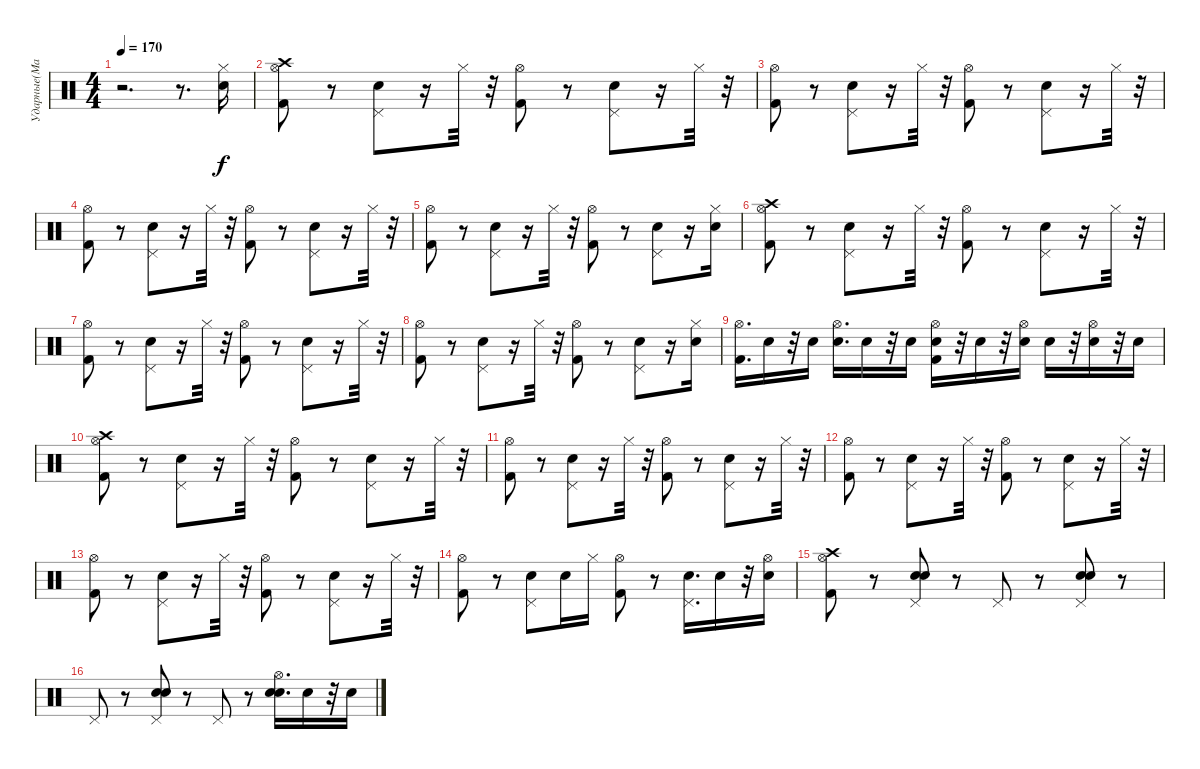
\track ("Ударные(Май)" "Ударные(Ма") {instrument percussion}
\staff {score}
\articulation defaults
\ts (4 4)
\tempo 170
\clef neutral
\ks c
r.2{d dy f} r.8{d} ("Electric Snare (hit)" "Hi-Hat (closed)").16 |
("Crash high (hit)" "Hi-Hat (open)" "Kick (hit) 2").8 r.8 ("Electric Snare (hit)" "Pedal Hi-Hat (hit)").8 r.16 "Hi-Hat (closed)".32 r.32 ("Kick (hit) 2" "Hi-Hat (open)").8 r.8 ("Electric Snare (hit)" "Pedal Hi-Hat (hit)").8 r.16 "Hi-Hat (closed)".32 r.32 |
("Hi-Hat (open)" "Kick (hit) 2").8 r.8 ("Electric Snare (hit)" "Pedal Hi-Hat (hit)").8 r.16 "Hi-Hat (closed)".32 r.32 ("Kick (hit) 2" "Hi-Hat (open)").8 r.8 ("Electric Snare (hit)" "Pedal Hi-Hat (hit)").8 r.16 "Hi-Hat (closed)".32 r.32 |
("Hi-Hat (open)" "Kick (hit) 2").8 r.8 ("Electric Snare (hit)" "Pedal Hi-Hat (hit)").8 r.16 "Hi-Hat (closed)".32 r.32 ("Kick (hit) 2" "Hi-Hat (open)").8 r.8 ("Electric Snare (hit)" "Pedal Hi-Hat (hit)").8 r.16 "Hi-Hat (closed)".32 r.32 |
("Hi-Hat (open)" "Kick (hit) 2").8 r.8 ("Electric Snare (hit)" "Pedal Hi-Hat (hit)").8 r.16 "Hi-Hat (closed)".32 r.32 ("Kick (hit) 2" "Hi-Hat (open)").8 r.8 ("Electric Snare (hit)" "Pedal Hi-Hat (hit)").8 r.16 ("Hi-Hat (closed)" "Electric Snare (hit)").16 |
("Crash high (hit)" "Hi-Hat (open)" "Kick (hit) 2").8 r.8 ("Electric Snare (hit)" "Pedal Hi-Hat (hit)").8 r.16 "Hi-Hat (closed)".32 r.32 ("Kick (hit) 2" "Hi-Hat (open)").8 r.8 ("Electric Snare (hit)" "Pedal Hi-Hat (hit)").8 r.16 "Hi-Hat (closed)".32 r.32 |
("Hi-Hat (open)" "Kick (hit) 2").8 r.8 ("Electric Snare (hit)" "Pedal Hi-Hat (hit)").8 r.16 "Hi-Hat (closed)".32 r.32 ("Kick (hit) 2" "Hi-Hat (open)").8 r.8 ("Electric Snare (hit)" "Pedal Hi-Hat (hit)").8 r.16 "Hi-Hat (closed)".32 r.32 |
("Hi-Hat (open)" "Kick (hit) 2").8 r.8 ("Electric Snare (hit)" "Pedal Hi-Hat (hit)").8 r.16 "Hi-Hat (closed)".32 r.32 ("Kick (hit) 2" "Hi-Hat (open)").8 r.8 ("Electric Snare (hit)" "Pedal Hi-Hat (hit)").8 r.16 ("Hi-Hat (closed)" "Electric Snare (hit)").16 |
("Kick (hit) 2" "Hi-Hat (open)").16{d} "Electric Snare (hit)".16 r.32 "Snare (hit) 2".16 ("Electric Snare (hit)" "Hi-Hat (open)").16{d} "Snare (hit) 2".16 r.32 "Electric Snare (hit)".16 ("Kick (hit) 2" "Hi-Hat (open)" "Electric Snare (hit)").16 r.32 "Snare (hit) 2".16 r.32 ("Hi-Hat (open)" "Electric Snare (hit)").16 "Snare (hit) 2".16 r.32 ("Hi-Hat (open)" "Electric Snare (hit)").16 r.32 "Electric Snare (hit)".16 |
("Crash high (hit)" "Hi-Hat (open)" "Kick (hit) 2").8 r.8 ("Electric Snare (hit)" "Pedal Hi-Hat (hit)").8 r.16 "Hi-Hat (closed)".32 r.32 ("Kick (hit) 2" "Hi-Hat (open)").8 r.8 ("Electric Snare (hit)" "Pedal Hi-Hat (hit)").8 r.16 "Hi-Hat (closed)".32 r.32 |
("Hi-Hat (open)" "Kick (hit) 2").8 r.8 ("Electric Snare (hit)" "Pedal Hi-Hat (hit)").8 r.16 "Hi-Hat (closed)".32 r.32 ("Kick (hit) 2" "Hi-Hat (open)").8 r.8 ("Electric Snare (hit)" "Pedal Hi-Hat (hit)").8 r.16 "Hi-Hat (closed)".32 r.32 |
("Hi-Hat (open)" "Kick (hit) 2").8 r.8 ("Electric Snare (hit)" "Pedal Hi-Hat (hit)").8 r.16 "Hi-Hat (closed)".32 r.32 ("Kick (hit) 2" "Hi-Hat (open)").8 r.8 ("Electric Snare (hit)" "Pedal Hi-Hat (hit)").8 r.16 "Hi-Hat (closed)".32 r.32 |
("Hi-Hat (open)" "Kick (hit) 2").8 r.8 ("Electric Snare (hit)" "Pedal Hi-Hat (hit)").8 r.16 "Hi-Hat (closed)".32 r.32 ("Kick (hit) 2" "Hi-Hat (open)").8 r.8 ("Electric Snare (hit)" "Pedal Hi-Hat (hit)").8 r.16 "Hi-Hat (closed)".32 r.32 |
("Hi-Hat (open)" "Kick (hit) 2").8 r.8 ("Electric Snare (hit)" "Pedal Hi-Hat (hit)").8 "Electric Snare (hit)".16 "Hi-Hat (closed)".16 ("Kick (hit) 2" "Hi-Hat (open)").8 r.8 ("Electric Snare (hit)" "Pedal Hi-Hat (hit)").16{d} "Electric Snare (hit)".16 r.32 ("Electric Snare (hit)" "Hi-Hat (open)").16 |
("Crash high (hit)" "Kick (hit) 2" "Hi-Hat (open)").8 r.8 ("Electric Snare (hit)" "Electric Snare (hit)" "Pedal Hi-Hat (hit)").8 r.8 "Pedal Hi-Hat (hit)".8 r.8 ("Electric Snare (hit)" "Electric Snare (hit)" "Pedal Hi-Hat (hit)").8 r.8 |
"Pedal Hi-Hat (hit)".8 r.8 ("Electric Snare (hit)" "Electric Snare (hit)" "Pedal Hi-Hat (hit)").8 r.8 "Pedal Hi-Hat (hit)".8 r.8 ("Electric Snare (hit)" "Electric Snare (hit)" "Hi-Hat (open)").16{d} "Electric Snare (hit)".16 r.32 "Electric Snare (hit)".16
